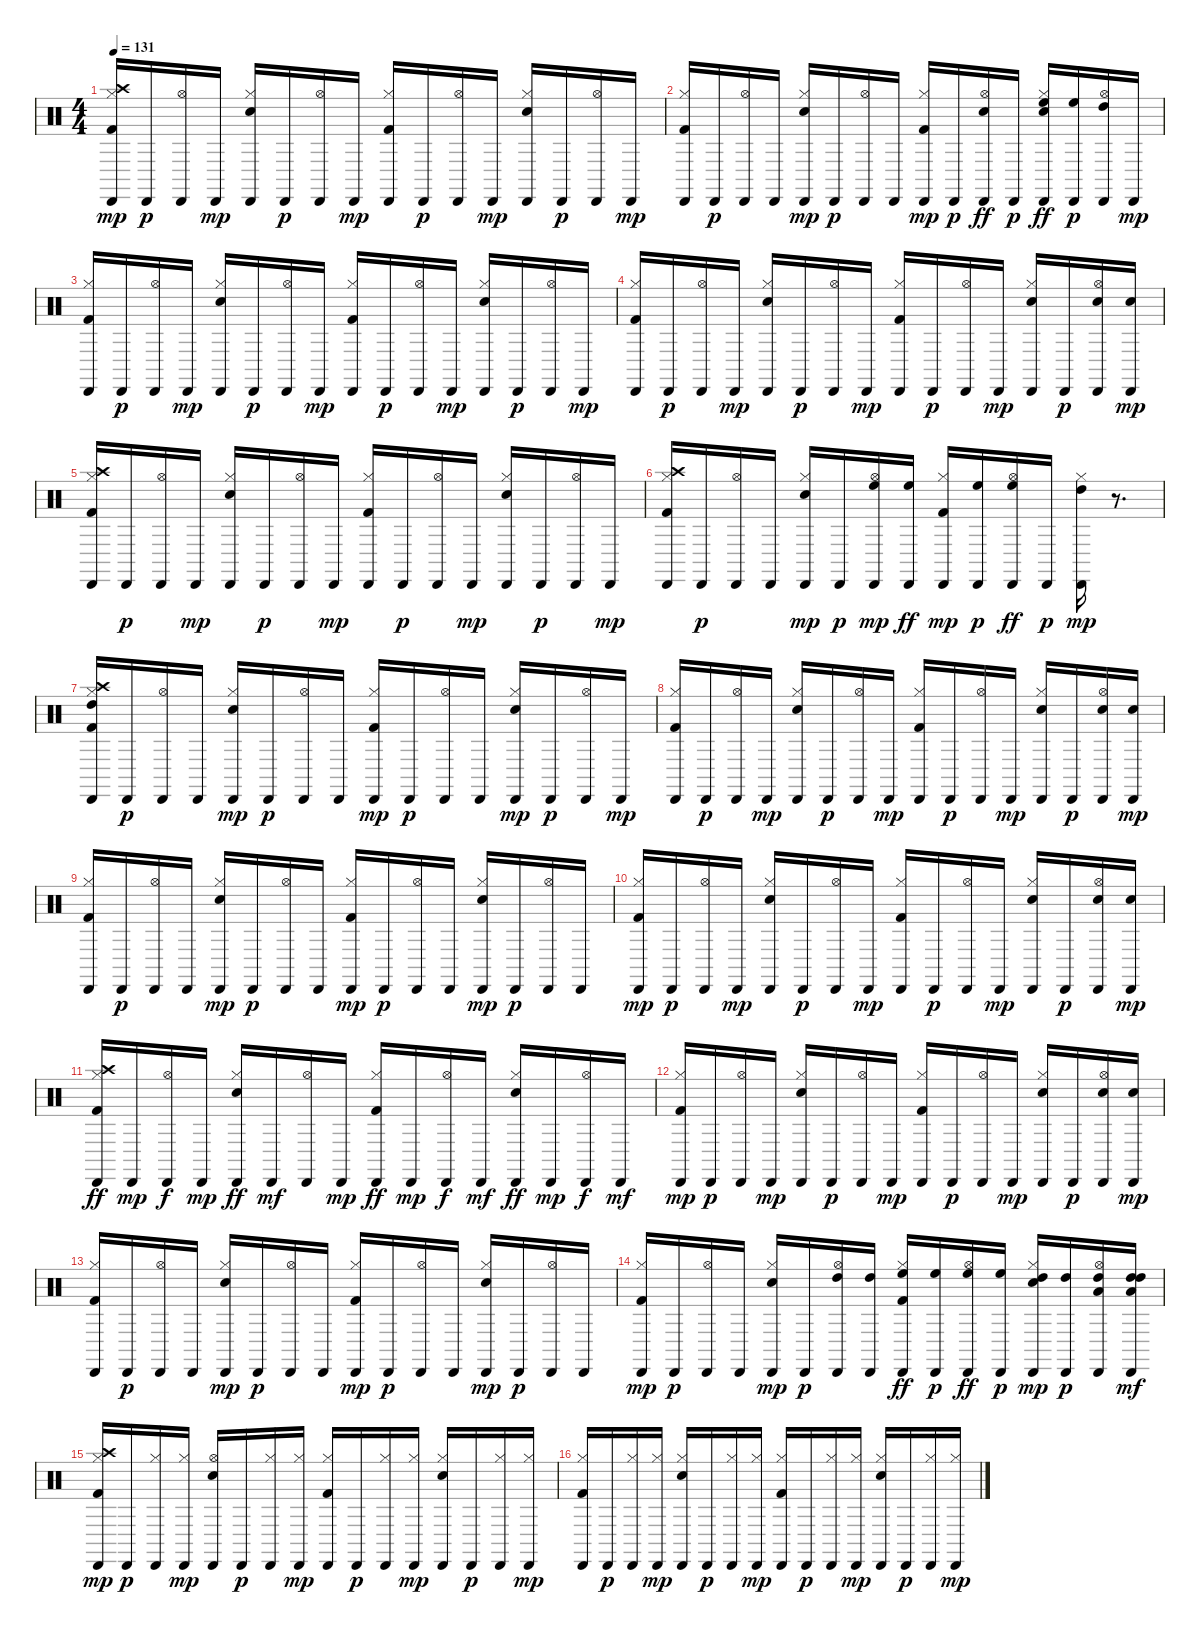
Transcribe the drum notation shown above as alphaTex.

\track "" {instrument percussion}
\staff {score}
\articulation defaults
\ts (4 4)
\tempo 131
\clef neutral
\ks c
("Kick (hit) 2" "Hi-Hat (closed)" "Crash high (hit)" "Cabasa (hit)").16{dy mp} "Cabasa (hit)".16{dy p} ("Hi-Hat (open)" "Cabasa (hit)").16 "Cabasa (hit)".16{dy mp} ("Snare (hit) 2" "Hi-Hat (closed)" "Cabasa (hit)").16 "Cabasa (hit)".16{dy p} ("Hi-Hat (open)" "Cabasa (hit)").16 "Cabasa (hit)".16{dy mp} ("Kick (hit) 2" "Hi-Hat (closed)" "Cabasa (hit)").16 "Cabasa (hit)".16{dy p} ("Hi-Hat (open)" "Cabasa (hit)").16 "Cabasa (hit)".16{dy mp} ("Snare (hit) 2" "Hi-Hat (closed)" "Cabasa (hit)").16 "Cabasa (hit)".16{dy p} ("Hi-Hat (open)" "Cabasa (hit)").16 "Cabasa (hit)".16{dy mp} |
("Kick (hit) 2" "Hi-Hat (closed)" "Cabasa (hit)").16 "Cabasa (hit)".16{dy p} ("Hi-Hat (open)" "Cabasa (hit)").16 "Cabasa (hit)".16 ("Snare (hit) 2" "Hi-Hat (closed)" "Cabasa (hit)").16{dy mp} "Cabasa (hit)".16{dy p} ("Hi-Hat (open)" "Cabasa (hit)").16 "Cabasa (hit)".16 ("Kick (hit) 2" "Hi-Hat (closed)" "Cabasa (hit)").16{dy mp} "Cabasa (hit)".16{dy p} ("Hi-Hat (open)" "Cabasa (hit)" "Electric Snare (hit)").16{dy ff} "Cabasa (hit)".16{dy p} ("Snare (hit) 2" "Hi-Hat (closed)" "Cabasa (hit)" "High Floor Tom (hit)").16{dy ff} ("Cabasa (hit)" "High Floor Tom (hit)").16{dy p} ("Hi-Hat (open)" "High Tom (hit)" "Cabasa (hit)").16 "Cabasa (hit)".16{dy mp} |
("Kick (hit) 2" "Hi-Hat (closed)" "Cabasa (hit)").16 "Cabasa (hit)".16{dy p} ("Hi-Hat (open)" "Cabasa (hit)").16 "Cabasa (hit)".16{dy mp} ("Snare (hit) 2" "Hi-Hat (closed)" "Cabasa (hit)").16 "Cabasa (hit)".16{dy p} ("Hi-Hat (open)" "Cabasa (hit)").16 "Cabasa (hit)".16{dy mp} ("Kick (hit) 2" "Hi-Hat (closed)" "Cabasa (hit)").16 "Cabasa (hit)".16{dy p} ("Hi-Hat (open)" "Cabasa (hit)").16 "Cabasa (hit)".16{dy mp} ("Snare (hit) 2" "Hi-Hat (closed)" "Cabasa (hit)").16 "Cabasa (hit)".16{dy p} ("Hi-Hat (open)" "Cabasa (hit)").16 "Cabasa (hit)".16{dy mp} |
("Kick (hit) 2" "Hi-Hat (closed)" "Cabasa (hit)").16 "Cabasa (hit)".16{dy p} ("Hi-Hat (open)" "Cabasa (hit)").16 "Cabasa (hit)".16{dy mp} ("Snare (hit) 2" "Hi-Hat (closed)" "Cabasa (hit)").16 "Cabasa (hit)".16{dy p} ("Hi-Hat (open)" "Cabasa (hit)").16 "Cabasa (hit)".16{dy mp} ("Kick (hit) 2" "Hi-Hat (closed)" "Cabasa (hit)").16 "Cabasa (hit)".16{dy p} ("Hi-Hat (open)" "Cabasa (hit)").16 "Cabasa (hit)".16{dy mp} ("Snare (hit) 2" "Hi-Hat (closed)" "Cabasa (hit)").16 "Cabasa (hit)".16{dy p} ("Snare (hit) 2" "Hi-Hat (open)" "Cabasa (hit)").16 ("Snare (hit) 2" "Cabasa (hit)").16{dy mp} |
("Kick (hit) 2" "Hi-Hat (closed)" "Crash high (hit)" "Cabasa (hit)").16 "Cabasa (hit)".16{dy p} ("Hi-Hat (open)" "Cabasa (hit)").16 "Cabasa (hit)".16{dy mp} ("Snare (hit) 2" "Hi-Hat (closed)" "Cabasa (hit)").16 "Cabasa (hit)".16{dy p} ("Hi-Hat (open)" "Cabasa (hit)").16 "Cabasa (hit)".16{dy mp} ("Kick (hit) 2" "Hi-Hat (closed)" "Cabasa (hit)").16 "Cabasa (hit)".16{dy p} ("Hi-Hat (open)" "Cabasa (hit)").16 "Cabasa (hit)".16{dy mp} ("Snare (hit) 2" "Hi-Hat (closed)" "Cabasa (hit)").16 "Cabasa (hit)".16{dy p} ("Hi-Hat (open)" "Cabasa (hit)").16 "Cabasa (hit)".16{dy mp} |
("Kick (hit) 2" "Hi-Hat (closed)" "Crash high (hit)" "Cabasa (hit)").16 "Cabasa (hit)".16{dy p} ("Hi-Hat (open)" "Cabasa (hit)").16 "Cabasa (hit)".16 ("Snare (hit) 2" "Hi-Hat (closed)" "Cabasa (hit)").16{dy mp} "Cabasa (hit)".16{dy p} ("Hi-Hat (open)" "Cabasa (hit)" "High Floor Tom (hit)").16{dy mp} ("Cabasa (hit)" "High Floor Tom (hit)").16{dy ff} ("Kick (hit) 2" "Hi-Hat (closed)" "Cabasa (hit)").16{dy mp} ("Cabasa (hit)" "High Floor Tom (hit)").16{dy p} ("Hi-Hat (open)" "Cabasa (hit)" "High Floor Tom (hit)").16{dy ff} "Cabasa (hit)".16{dy p} ("Hi-Hat (closed)" "High Tom (hit)" "Cabasa (hit)").16{dy mp} r.8{d} |
("High Tom (hit)" "Kick (hit) 2" "Hi-Hat (closed)" "Crash high (hit)" "Cabasa (hit)").16 "Cabasa (hit)".16{dy p} ("Hi-Hat (open)" "Cabasa (hit)").16 "Cabasa (hit)".16 ("Snare (hit) 2" "Hi-Hat (closed)" "Cabasa (hit)").16{dy mp} "Cabasa (hit)".16{dy p} ("Hi-Hat (open)" "Cabasa (hit)").16 "Cabasa (hit)".16 ("Kick (hit) 2" "Hi-Hat (closed)" "Cabasa (hit)").16{dy mp} "Cabasa (hit)".16{dy p} ("Hi-Hat (open)" "Cabasa (hit)").16 "Cabasa (hit)".16 ("Snare (hit) 2" "Hi-Hat (closed)" "Cabasa (hit)").16{dy mp} "Cabasa (hit)".16{dy p} ("Hi-Hat (open)" "Cabasa (hit)").16 "Cabasa (hit)".16{dy mp} |
("Kick (hit) 2" "Hi-Hat (closed)" "Cabasa (hit)").16 "Cabasa (hit)".16{dy p} ("Hi-Hat (open)" "Cabasa (hit)").16 "Cabasa (hit)".16{dy mp} ("Snare (hit) 2" "Hi-Hat (closed)" "Cabasa (hit)").16 "Cabasa (hit)".16{dy p} ("Hi-Hat (open)" "Cabasa (hit)").16 "Cabasa (hit)".16{dy mp} ("Kick (hit) 2" "Hi-Hat (closed)" "Cabasa (hit)").16 "Cabasa (hit)".16{dy p} ("Hi-Hat (open)" "Cabasa (hit)").16 "Cabasa (hit)".16{dy mp} ("Snare (hit) 2" "Hi-Hat (closed)" "Cabasa (hit)").16 "Cabasa (hit)".16{dy p} ("Snare (hit) 2" "Hi-Hat (open)" "Cabasa (hit)").16 ("Snare (hit) 2" "Cabasa (hit)").16{dy mp} |
("Kick (hit) 2" "Hi-Hat (closed)" "Cabasa (hit)").16 "Cabasa (hit)".16{dy p} ("Hi-Hat (open)" "Cabasa (hit)").16 "Cabasa (hit)".16 ("Snare (hit) 2" "Hi-Hat (closed)" "Cabasa (hit)").16{dy mp} "Cabasa (hit)".16{dy p} ("Hi-Hat (open)" "Cabasa (hit)").16 "Cabasa (hit)".16 ("Kick (hit) 2" "Hi-Hat (closed)" "Cabasa (hit)").16{dy mp} "Cabasa (hit)".16{dy p} ("Hi-Hat (open)" "Cabasa (hit)").16 "Cabasa (hit)".16 ("Snare (hit) 2" "Hi-Hat (closed)" "Cabasa (hit)").16{dy mp} "Cabasa (hit)".16{dy p} ("Hi-Hat (open)" "Cabasa (hit)").16 "Cabasa (hit)".16 |
("Kick (hit) 2" "Hi-Hat (closed)" "Cabasa (hit)").16{dy mp} "Cabasa (hit)".16{dy p} ("Hi-Hat (open)" "Cabasa (hit)").16 "Cabasa (hit)".16{dy mp} ("Snare (hit) 2" "Hi-Hat (closed)" "Cabasa (hit)").16 "Cabasa (hit)".16{dy p} ("Hi-Hat (open)" "Cabasa (hit)").16 "Cabasa (hit)".16{dy mp} ("Kick (hit) 2" "Hi-Hat (closed)" "Cabasa (hit)").16 "Cabasa (hit)".16{dy p} ("Hi-Hat (open)" "Cabasa (hit)").16 "Cabasa (hit)".16{dy mp} ("Snare (hit) 2" "Hi-Hat (closed)" "Cabasa (hit)").16 "Cabasa (hit)".16{dy p} ("Snare (hit) 2" "Hi-Hat (open)" "Cabasa (hit)").16 ("Snare (hit) 2" "Cabasa (hit)").16{dy mp} |
("Kick (hit) 2" "Hi-Hat (closed)" "Crash high (hit)" "Cabasa (hit)").16{dy ff} "Cabasa (hit)".16{dy mp} ("Hi-Hat (open)" "Cabasa (hit)").16{dy f} "Cabasa (hit)".16{dy mp} ("Snare (hit) 2" "Hi-Hat (closed)" "Cabasa (hit)").16{dy ff} "Cabasa (hit)".16{dy mf} ("Hi-Hat (open)" "Cabasa (hit)").16 "Cabasa (hit)".16{dy mp} ("Kick (hit) 2" "Hi-Hat (closed)" "Cabasa (hit)").16{dy ff} "Cabasa (hit)".16{dy mp} ("Hi-Hat (open)" "Cabasa (hit)").16{dy f} "Cabasa (hit)".16{dy mf} ("Snare (hit) 2" "Hi-Hat (closed)" "Cabasa (hit)").16{dy ff} "Cabasa (hit)".16{dy mp} ("Hi-Hat (open)" "Cabasa (hit)").16{dy f} "Cabasa (hit)".16{dy mf} |
("Kick (hit) 2" "Hi-Hat (closed)" "Cabasa (hit)").16{dy mp} "Cabasa (hit)".16{dy p} ("Hi-Hat (open)" "Cabasa (hit)").16 "Cabasa (hit)".16{dy mp} ("Snare (hit) 2" "Hi-Hat (closed)" "Cabasa (hit)").16 "Cabasa (hit)".16{dy p} ("Hi-Hat (open)" "Cabasa (hit)").16 "Cabasa (hit)".16{dy mp} ("Kick (hit) 2" "Hi-Hat (closed)" "Cabasa (hit)").16 "Cabasa (hit)".16{dy p} ("Hi-Hat (open)" "Cabasa (hit)").16 "Cabasa (hit)".16{dy mp} ("Snare (hit) 2" "Hi-Hat (closed)" "Cabasa (hit)").16 "Cabasa (hit)".16{dy p} ("Snare (hit) 2" "Hi-Hat (open)" "Cabasa (hit)").16 ("Snare (hit) 2" "Cabasa (hit)").16{dy mp} |
("Kick (hit) 2" "Hi-Hat (closed)" "Cabasa (hit)").16 "Cabasa (hit)".16{dy p} ("Hi-Hat (open)" "Cabasa (hit)").16 "Cabasa (hit)".16 ("Snare (hit) 2" "Hi-Hat (closed)" "Cabasa (hit)").16{dy mp} "Cabasa (hit)".16{dy p} ("Hi-Hat (open)" "Cabasa (hit)").16 "Cabasa (hit)".16 ("Kick (hit) 2" "Hi-Hat (closed)" "Cabasa (hit)").16{dy mp} "Cabasa (hit)".16{dy p} ("Hi-Hat (open)" "Cabasa (hit)").16 "Cabasa (hit)".16 ("Snare (hit) 2" "Hi-Hat (closed)" "Cabasa (hit)").16{dy mp} "Cabasa (hit)".16{dy p} ("Hi-Hat (open)" "Cabasa (hit)").16 "Cabasa (hit)".16 |
("Kick (hit) 2" "Hi-Hat (closed)" "Cabasa (hit)").16{dy mp} "Cabasa (hit)".16{dy p} ("Hi-Hat (open)" "Cabasa (hit)").16 "Cabasa (hit)".16 ("Snare (hit) 2" "Hi-Hat (closed)" "Cabasa (hit)").16{dy mp} "Cabasa (hit)".16{dy p} ("Hi-Hat (open)" "High Tom (hit)" "Cabasa (hit)").16 ("High Tom (hit)" "Cabasa (hit)").16 ("Kick (hit) 2" "Hi-Hat (closed)" "Cabasa (hit)" "High Floor Tom (hit)").16{dy ff} ("Cabasa (hit)" "High Floor Tom (hit)").16{dy p} ("Hi-Hat (open)" "Cabasa (hit)" "High Floor Tom (hit)").16{dy ff} ("Cabasa (hit)" "High Floor Tom (hit)").16{dy p} ("Snare (hit) 2" "Hi-Hat (closed)" "High Tom (hit)" "Cabasa (hit)").16{dy mp} ("High Tom (hit)" "Cabasa (hit)").16{dy p} ("Low Tom (hit)" "Hi-Hat (open)" "High Tom (hit)" "Cabasa (hit)").16 ("Low Tom (hit)" "High Tom (hit)" "Cabasa (hit)" "High Tom (hit)").16{dy mf} |
("Kick (hit) 2" "Hi-Hat (closed)" "Crash high (hit)" "Cabasa (hit)").16{dy mp} "Cabasa (hit)".16{dy p} ("Hi-Hat (closed)" "Cabasa (hit)").16 ("Hi-Hat (closed)" "Cabasa (hit)").16{dy mp} ("Snare (hit) 2" "Hi-Hat (open)" "Cabasa (hit)").16 "Cabasa (hit)".16{dy p} ("Hi-Hat (closed)" "Cabasa (hit)").16 ("Hi-Hat (closed)" "Cabasa (hit)").16{dy mp} ("Kick (hit) 2" "Hi-Hat (closed)" "Cabasa (hit)").16 "Cabasa (hit)".16{dy p} ("Hi-Hat (closed)" "Cabasa (hit)").16 ("Hi-Hat (closed)" "Cabasa (hit)").16{dy mp} ("Snare (hit) 2" "Hi-Hat (closed)" "Cabasa (hit)").16 "Cabasa (hit)".16{dy p} ("Hi-Hat (closed)" "Cabasa (hit)").16 ("Hi-Hat (closed)" "Cabasa (hit)").16{dy mp} |
("Kick (hit) 2" "Hi-Hat (closed)" "Cabasa (hit)").16 "Cabasa (hit)".16{dy p} ("Hi-Hat (closed)" "Cabasa (hit)").16 ("Hi-Hat (closed)" "Cabasa (hit)").16{dy mp} ("Snare (hit) 2" "Hi-Hat (closed)" "Cabasa (hit)").16 "Cabasa (hit)".16{dy p} ("Hi-Hat (closed)" "Cabasa (hit)").16 ("Hi-Hat (closed)" "Cabasa (hit)").16{dy mp} ("Kick (hit) 2" "Hi-Hat (closed)" "Cabasa (hit)").16 "Cabasa (hit)".16{dy p} ("Hi-Hat (closed)" "Cabasa (hit)").16 ("Hi-Hat (closed)" "Cabasa (hit)").16{dy mp} ("Snare (hit) 2" "Hi-Hat (closed)" "Cabasa (hit)").16 "Cabasa (hit)".16{dy p} ("Hi-Hat (closed)" "Cabasa (hit)").16 ("Hi-Hat (closed)" "Cabasa (hit)").16{dy mp}
